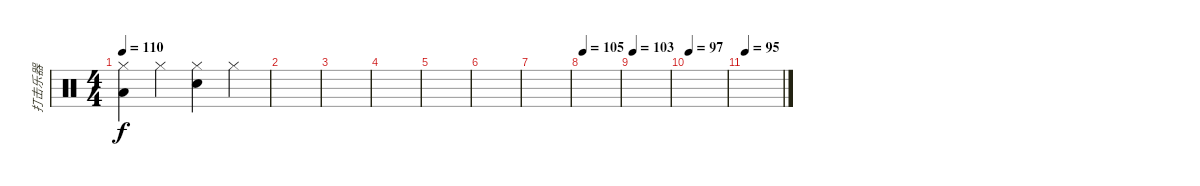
\track ("打击乐器" "打击乐器") {instrument percussion}
\staff {score}
\articulation defaults
\ts (4 4)
\tempo 110
\clef neutral
\ks c
("Hi-Hat (closed)" "Low Floor Tom (hit)").4{dy f} "Hi-Hat (closed)".4 ("Hi-Hat (closed)" "Electric Snare (hit)").4 "Hi-Hat (closed)".4 |
|
|
|
|
|
|
\tempo 105
|
\tempo 103
|
\tempo 97
|
\tempo 95
